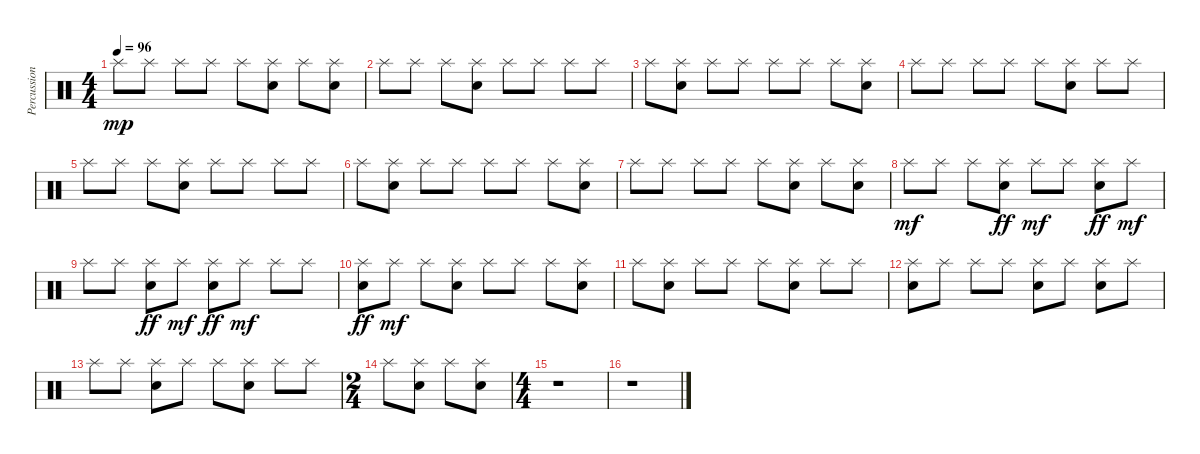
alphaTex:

\track ("Percussions" "Percussion") {instrument percussion}
\staff {score}
\articulation defaults
\ts (4 4)
\tempo 96
\clef neutral
\ks c "Splash (hit)".8{dy mp} "Splash (hit)".8 "Splash (hit)".8 "Splash (hit)".8 "Splash (hit)".8
("Splash (hit)" "Electric Snare (hit)").8 "Splash (hit)".8 ("Splash (hit)" "Electric Snare (hit)").8 |
"Splash (hit)".8 "Splash (hit)".8 "Splash (hit)".8 ("Splash (hit)" "Electric Snare (hit)").8 "Splash (hit)".8 "Splash (hit)".8 "Splash (hit)".8 "Splash (hit)".8 |
"Splash (hit)".8 ("Splash (hit)" "Electric Snare (hit)").8 "Splash (hit)".8 "Splash (hit)".8 "Splash (hit)".8 "Splash (hit)".8 "Splash (hit)".8 ("Splash (hit)" "Electric Snare (hit)").8 |
"Splash (hit)".8 "Splash (hit)".8 "Splash (hit)".8 "Splash (hit)".8 "Splash (hit)".8 ("Splash (hit)" "Electric Snare (hit)").8 "Splash (hit)".8 "Splash (hit)".8 |
"Splash (hit)".8 "Splash (hit)".8 "Splash (hit)".8 ("Splash (hit)" "Electric Snare (hit)").8 "Splash (hit)".8 "Splash (hit)".8 "Splash (hit)".8 "Splash (hit)".8 |
"Splash (hit)".8 ("Splash (hit)" "Electric Snare (hit)").8 "Splash (hit)".8 "Splash (hit)".8 "Splash (hit)".8 "Splash (hit)".8 "Splash (hit)".8 ("Splash (hit)" "Electric Snare (hit)").8 |
"Splash (hit)".8 "Splash (hit)".8 "Splash (hit)".8 "Splash (hit)".8 "Splash (hit)".8 ("Splash (hit)" "Electric Snare (hit)").8 "Splash (hit)".8 ("Splash (hit)" "Electric Snare (hit)").8 |
"Splash (hit)".8{dy mf} "Splash (hit)".8 "Splash (hit)".8 ("Splash (hit)" "Electric Snare (hit)").8{dy ff} "Splash (hit)".8{dy mf} "Splash (hit)".8 ("Splash (hit)" "Electric Snare (hit)").8{dy ff} "Splash (hit)".8{dy mf} |
"Splash (hit)".8 "Splash (hit)".8 ("Splash (hit)" "Electric Snare (hit)").8{dy ff} "Splash (hit)".8{dy mf} ("Splash (hit)" "Electric Snare (hit)").8{dy ff} "Splash (hit)".8{dy mf} "Splash (hit)".8 "Splash (hit)".8 |
("Splash (hit)" "Electric Snare (hit)").8{dy ff} "Splash (hit)".8{dy mf} "Splash (hit)".8 ("Splash (hit)" "Electric Snare (hit)").8 "Splash (hit)".8 "Splash (hit)".8 "Splash (hit)".8 ("Splash (hit)" "Electric Snare (hit)").8 |
"Splash (hit)".8 ("Splash (hit)" "Electric Snare (hit)").8 "Splash (hit)".8 "Splash (hit)".8 "Splash (hit)".8 ("Splash (hit)" "Electric Snare (hit)").8 "Splash (hit)".8 "Splash (hit)".8 |
("Splash (hit)" "Electric Snare (hit)").8 "Splash (hit)".8 "Splash (hit)".8 "Splash (hit)".8 ("Splash (hit)" "Electric Snare (hit)").8 "Splash (hit)".8 ("Splash (hit)" "Electric Snare (hit)").8 "Splash (hit)".8 |
"Splash (hit)".8 "Splash (hit)".8 ("Splash (hit)" "Electric Snare (hit)").8 "Splash (hit)".8 "Splash (hit)".8 ("Splash (hit)" "Electric Snare (hit)").8 "Splash (hit)".8 "Splash (hit)".8 |
\ts (2 4)
"Splash (hit)".8 ("Splash (hit)" "Electric Snare (hit)").8 "Splash (hit)".8 ("Splash (hit)" "Electric Snare (hit)").8 |
\ts (4 4)
r.1 |
r.1
